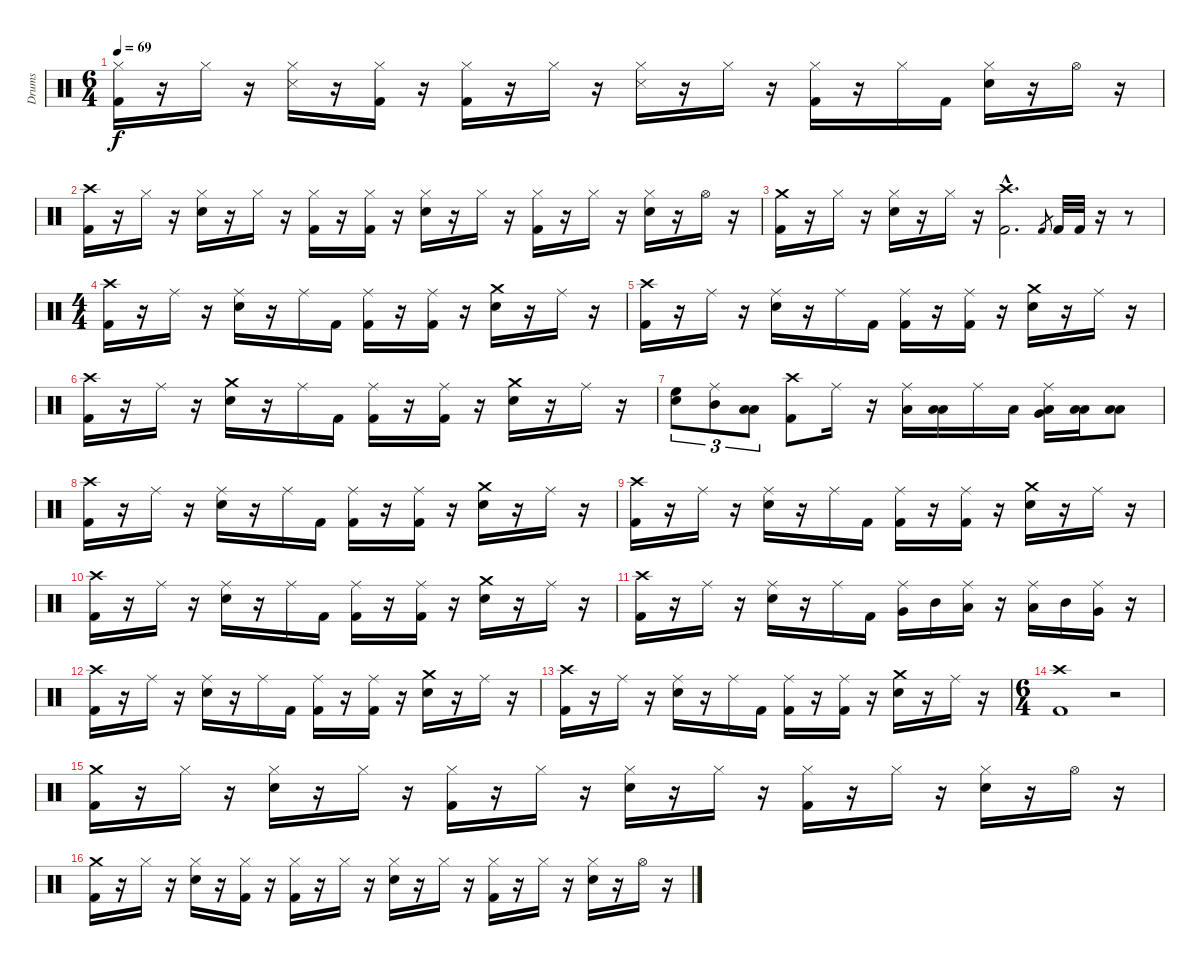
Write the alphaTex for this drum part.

\track ("Drums" "Drums") {instrument percussion}
\staff {score}
\articulation defaults
\ts (6 4)
\tempo 69
\clef neutral
\ks c
("Hi-Hat (closed)" "Kick (hit) 2").16{dy f} r.16 "Hi-Hat (closed)".16 r.16 ("Hi-Hat (closed)" "Snare (side stick) 3").16 r.16 ("Hi-Hat (closed)" "Kick (hit) 2").16 r.16 ("Hi-Hat (closed)" "Kick (hit) 2").16 r.16 "Hi-Hat (closed)".16 r.16 ("Hi-Hat (closed)" "Snare (side stick) 3").16 r.16 "Hi-Hat (closed)".16 r.16 ("Hi-Hat (closed)" "Kick (hit) 2").16 r.16 "Hi-Hat (closed)".16 "Kick (hit) 2".16 ("Hi-Hat (closed)" "Snare (hit) 2").16 r.16 "Hi-Hat (open)".16 r.16 |
("Crash high (hit)" "Kick (hit) 2").16 r.16 "Hi-Hat (closed)".16 r.16 ("Hi-Hat (closed)" "Snare (hit) 2").16 r.16 "Hi-Hat (closed)".16 r.16 ("Hi-Hat (closed)" "Kick (hit) 2").16 r.16 ("Hi-Hat (closed)" "Kick (hit) 2").16 r.16 ("Hi-Hat (closed)" "Snare (hit) 2").16 r.16 "Hi-Hat (closed)".16 r.16 ("Hi-Hat (closed)" "Kick (hit) 2").16 r.16 "Hi-Hat (closed)".16 r.16 ("Hi-Hat (closed)" "Snare (hit) 2").16 r.16 "Hi-Hat (open)".16 r.16 |
("Crash medium (hit)" "Kick (hit) 2").16 r.16 "Hi-Hat (closed)".16 r.16 ("Hi-Hat (closed)" "Snare (hit) 2").16 r.16 "Hi-Hat (closed)".16 r.16 ("Crash high (hit)"{hac} "Kick (hit) 2"{hac}).2{d} "Kick (hit) 2".8{gr} "Kick (hit) 2".32 "Kick (hit) 2".32 r.16 r.8 |
\ts (4 4)
("Crash high (hit)" "Kick (hit) 2").16 r.16 "Ride (middle)".16 r.16 ("Ride (middle)" "Snare (hit) 2").16 r.16 "Ride (middle)".16 "Kick (hit) 2".16 ("Ride (middle)" "Kick (hit) 2").16 r.16 ("Ride (middle)" "Kick (hit) 2").16 r.16 ("Crash medium (hit)" "Snare (hit) 2").16 r.16 "Ride (middle)".16 r.16 |
("Crash high (hit)" "Kick (hit) 2").16 r.16 "Ride (middle)".16 r.16 ("Ride (middle)" "Snare (hit) 2").16 r.16 "Ride (middle)".16 "Kick (hit) 2".16 ("Ride (middle)" "Kick (hit) 2").16 r.16 ("Ride (middle)" "Kick (hit) 2").16 r.16 ("Crash medium (hit)" "Snare (hit) 2").16 r.16 "Ride (middle)".16 r.16 |
("Crash high (hit)" "Kick (hit) 2").16 r.16 "Ride (middle)".16 r.16 ("Crash medium (hit)" "Snare (hit) 2").16 r.16 "Ride (middle)".16 "Kick (hit) 2".16 ("Ride (middle)" "Kick (hit) 2").16 r.16 ("Ride (middle)" "Kick (hit) 2").16 r.16 ("Crash medium (hit)" "Snare (hit) 2").16 r.16 "Ride (middle)".16 r.16 |
("High Floor Tom (hit)" "Snare (hit) 2").8{tu (3 2)} ("Ride (middle)" "Mid Tom (hit)").8{tu (3 2)} ("Low Tom (hit)" "Low Tom (hit)").8{tu (3 2)} ("Crash high (hit)" "Kick (hit) 2").8 "Ride (middle)".16 r.16 ("Low Floor Tom (hit)" "Ride (middle)").16 ("Low Floor Tom (hit)" "Low Tom (hit)").16 "Ride (middle)".16 "Low Tom (hit)".16 ("Ride (middle)" "Low Floor Tom (hit)" "Very Low Tom (hit)").16 ("Low Floor Tom (hit)" "Low Tom (hit)").16 ("Low Floor Tom (hit)" "Low Floor Tom (hit)").8 |
("Crash high (hit)" "Kick (hit) 2").16 r.16 "Ride (middle)".16 r.16 ("Ride (middle)" "Snare (hit) 2").16 r.16 "Ride (middle)".16 "Kick (hit) 2".16 ("Ride (middle)" "Kick (hit) 2").16 r.16 ("Ride (middle)" "Kick (hit) 2").16 r.16 ("Crash medium (hit)" "Snare (hit) 2").16 r.16 "Ride (middle)".16 r.16 |
("Crash high (hit)" "Kick (hit) 2").16 r.16 "Ride (middle)".16 r.16 ("Ride (middle)" "Snare (hit) 2").16 r.16 "Ride (middle)".16 "Kick (hit) 2".16 ("Ride (middle)" "Kick (hit) 2").16 r.16 ("Ride (middle)" "Kick (hit) 2").16 r.16 ("Crash medium (hit)" "Snare (hit) 2").16 r.16 "Ride (middle)".16 r.16 |
("Crash high (hit)" "Kick (hit) 2").16 r.16 "Ride (middle)".16 r.16 ("Ride (middle)" "Snare (hit) 2").16 r.16 "Ride (middle)".16 "Kick (hit) 2".16 ("Ride (middle)" "Kick (hit) 2").16 r.16 ("Ride (middle)" "Kick (hit) 2").16 r.16 ("Crash medium (hit)" "Snare (hit) 2").16 r.16 "Ride (middle)".16 r.16 |
("Crash high (hit)" "Kick (hit) 2").16 r.16 "Ride (middle)".16 r.16 ("Ride (middle)" "Snare (hit) 2").16 r.16 "Ride (middle)".16 "Kick (hit) 2".16 ("Ride (middle)" "Very Low Tom (hit)").16 "Mid Tom (hit)".16 ("Ride (middle)" "Low Tom (hit)").16 r.16 ("Ride (middle)" "Low Tom (hit)").16 "Mid Tom (hit)".16 ("Ride (middle)" "Very Low Tom (hit)").16 r.16 |
("Crash high (hit)" "Kick (hit) 2").16 r.16 "Ride (middle)".16 r.16 ("Ride (middle)" "Snare (hit) 2").16 r.16 "Ride (middle)".16 "Kick (hit) 2".16 ("Ride (middle)" "Kick (hit) 2").16 r.16 ("Ride (middle)" "Kick (hit) 2").16 r.16 ("Crash medium (hit)" "Snare (hit) 2").16 r.16 "Ride (middle)".16 r.16 |
("Crash high (hit)" "Kick (hit) 2").16 r.16 "Ride (middle)".16 r.16 ("Ride (middle)" "Snare (hit) 2").16 r.16 "Ride (middle)".16 "Kick (hit) 2".16 ("Ride (middle)" "Kick (hit) 2").16 r.16 ("Ride (middle)" "Kick (hit) 2").16 r.16 ("Crash medium (hit)" "Snare (hit) 2").16 r.16 "Ride (middle)".16 r.16 |
\ts (6 4)
("Crash high (hit)" "Kick (hit) 2").1 r.2 |
("Crash medium (hit)" "Kick (hit) 2").16 r.16 "Hi-Hat (closed)".16 r.16 ("Hi-Hat (closed)" "Snare (hit) 2").16 r.16 "Hi-Hat (closed)".16 r.16 ("Hi-Hat (closed)" "Kick (hit) 2").16 r.16 "Hi-Hat (closed)".16 r.16 ("Hi-Hat (closed)" "Snare (hit) 2").16 r.16 "Hi-Hat (closed)".16 r.16 ("Hi-Hat (closed)" "Kick (hit) 2").16 r.16 "Hi-Hat (closed)".16 r.16 ("Hi-Hat (closed)" "Snare (hit) 2").16 r.16 "Hi-Hat (open)".16 r.16 |
("Crash medium (hit)" "Kick (hit) 2").16 r.16 "Hi-Hat (closed)".16 r.16 ("Hi-Hat (closed)" "Snare (hit) 2").16 r.16 ("Hi-Hat (closed)" "Kick (hit) 2").16 r.16 ("Hi-Hat (closed)" "Kick (hit) 2").16 r.16 "Hi-Hat (closed)".16 r.16 ("Hi-Hat (closed)" "Snare (hit) 2").16 r.16 "Hi-Hat (closed)".16 r.16 ("Hi-Hat (closed)" "Kick (hit) 2").16 r.16 "Hi-Hat (closed)".16 r.16 ("Hi-Hat (closed)" "Snare (hit) 2").16 r.16 "Hi-Hat (open)".16 r.16
